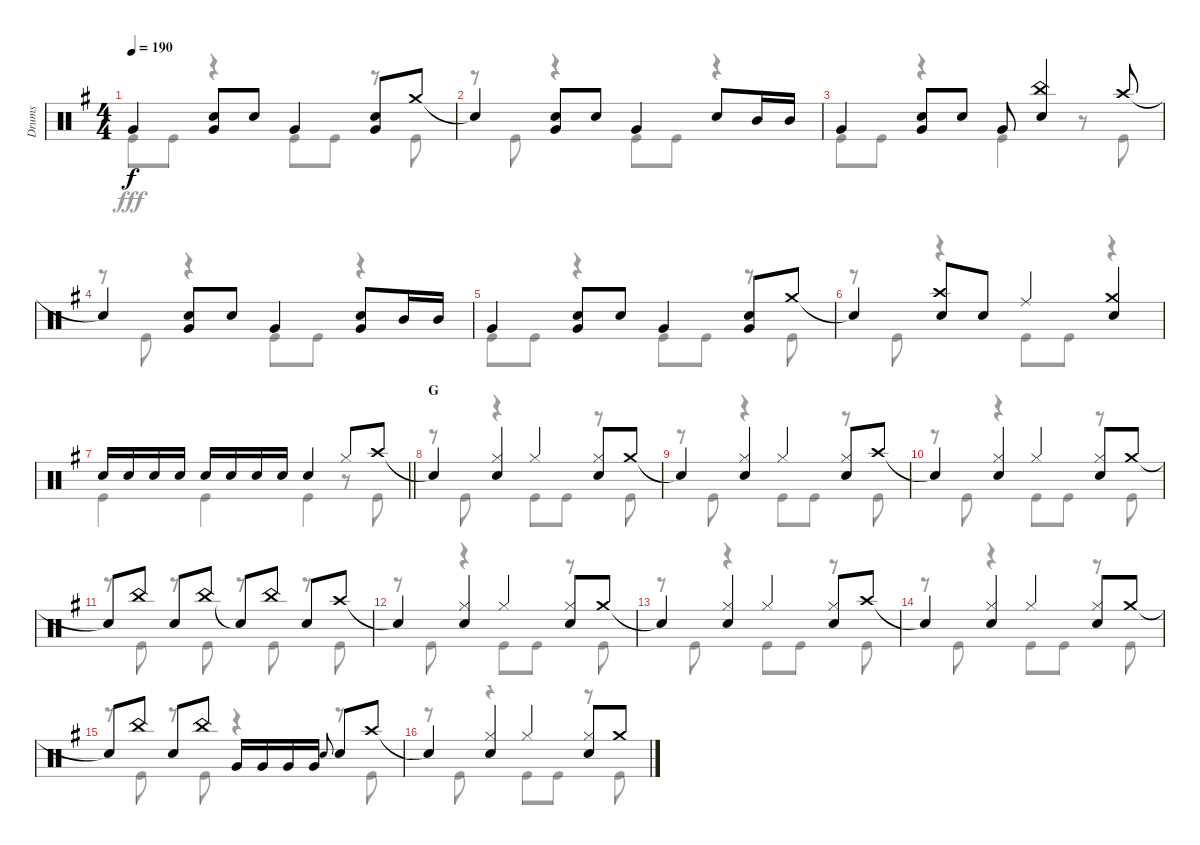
\track ("Drums" "Drums") {instrument percussion}
\staff {score}
\articulation defaults
\voice
\ts (4 4)
\tempo 190
\clef neutral
\ks g "Very Low Tom (hit)".4{dy f}
("Snare (hit) 2" "Very Low Tom (hit)").8 "Snare (hit) 2".8 "Very Low Tom (hit)".4 ("Snare (hit) 2" "Very Low Tom (hit)").8 "Crash medium (hit)".8 |
"Snare (hit)"{t}.4 ("Snare (hit) 2" "Very Low Tom (hit)").8 "Snare (hit) 2".8 "Very Low Tom (hit)".4 "Snare (hit) 2".8 "Mid Tom (hit)".16 "Mid Tom (hit)".16 |
"Very Low Tom (hit)".4 ("Snare (hit) 2" "Very Low Tom (hit)").8 "Snare (hit) 2".8 "Very Low Tom (hit)".8 ("China (hit)" "Snare (hit) 2").4 "Crash high (hit)".8 |
"Snare (hit)"{t}.4 ("Snare (hit) 2" "Very Low Tom (hit)").8 "Snare (hit) 2".8 "Very Low Tom (hit)".4 ("Snare (hit) 2" "Very Low Tom (hit)").8 "Mid Tom (hit)".16 "Mid Tom (hit)".16 |
"Very Low Tom (hit)".4 ("Snare (hit) 2" "Very Low Tom (hit)").8 "Snare (hit) 2".8 "Very Low Tom (hit)".4 ("Snare (hit) 2" "Very Low Tom (hit)").8 "Crash medium (hit)".8 |
"Snare (hit)"{t}.4 ("Crash high (hit)" "Snare (hit) 2").8 "Snare (hit) 2".8 "Ride (middle)".4 ("Crash medium (hit)" "Snare (hit) 2").4 |
\barLineRight lightlight "Snare (hit) 2".16 "Snare (hit) 2".16 "Snare (hit) 2".16 "Snare (hit) 2".16 "Snare (hit) 2".16 "Snare (hit) 2".16 "Snare (hit) 2".16 "Snare (hit) 2".16 "Snare (hit) 2".4 "Hi-Hat (closed)".8 "Crash high (hit)".8
|
\section ("" "G")
"Snare (hit)"{t}.4 ("Hi-Hat (closed)" "Snare (hit) 2").4 "Hi-Hat (closed)".4 ("Hi-Hat (closed)" "Snare (hit) 2").8 "Crash medium (hit)".8 |
"Snare (hit)"{t}.4 ("Hi-Hat (closed)" "Snare (hit) 2").4 "Hi-Hat (closed)".4 ("Hi-Hat (closed)" "Snare (hit) 2").8 "Crash high (hit)".8 |
"Snare (hit)"{t}.4 ("Hi-Hat (closed)" "Snare (hit) 2").4 "Hi-Hat (closed)".4 ("Hi-Hat (closed)" "Snare (hit) 2").8 "Crash medium (hit)".8 |
"Snare (hit)"{t}.8 "China (hit)".8 "Snare (hit) 2".8 "China (hit)".8 "Snare (hit)"{t}.8 "China (hit)".8 "Snare (hit) 2".8 "Crash high (hit)".8 |
"Snare (hit)"{t}.4 ("Hi-Hat (closed)" "Snare (hit) 2").4 "Hi-Hat (closed)".4 ("Hi-Hat (closed)" "Snare (hit) 2").8 "Crash medium (hit)".8 |
"Snare (hit)"{t}.4 ("Hi-Hat (closed)" "Snare (hit) 2").4 "Hi-Hat (closed)".4 ("Hi-Hat (closed)" "Snare (hit) 2").8 "Crash high (hit)".8 |
"Snare (hit)"{t}.4 ("Hi-Hat (closed)" "Snare (hit) 2").4 "Hi-Hat (closed)".4 ("Hi-Hat (closed)" "Snare (hit) 2").8 "Crash medium (hit)".8 |
"Snare (hit)"{t}.8 "China (hit)".8 "Snare (hit) 2".8 "China (hit)".8 "Very Low Tom (hit)".16 "Very Low Tom (hit)".16 "Very Low Tom (hit)".16 "Very Low Tom (hit)".16 "Snare (hit) 2".8{gr onbeat} "Snare (hit) 2".8 "Crash high (hit)".8 |
"Snare (hit)"{t}.4 ("Hi-Hat (closed)" "Snare (hit) 2").4 "Hi-Hat (closed)".4 ("Hi-Hat (closed)" "Snare (hit) 2").8 "Crash medium (hit)".8
\voice
\clef neutral
\ottava regular
\simile none
\ks g "Kick (hit)".8{dy fff} "Kick (hit)".8
r.4 "Kick (hit)".8 "Kick (hit)".8 r.8 "Kick (hit)".8 |
r.8 "Kick (hit)".8 r.4 "Kick (hit)".8 "Kick (hit)".8 r.4 |
"Kick (hit)".8 "Kick (hit)".8 r.4 "Kick (hit)".4 r.8 "Kick (hit)".8 |
r.8 "Kick (hit)".8 r.4 "Kick (hit)".8 "Kick (hit)".8 r.4 |
"Kick (hit)".8 "Kick (hit)".8 r.4 "Kick (hit)".8 "Kick (hit)".8 r.8 "Kick (hit)".8 |
r.8 "Kick (hit)".8 r.4 "Kick (hit)".8 "Kick (hit)".8 r.4 |
\barLineRight lightlight "Kick (hit)".4 "Kick (hit)".4 "Kick (hit)".4
r.8 "Kick (hit)".8 |
r.8 "Kick (hit)".8 r.4 "Kick (hit)".8 "Kick (hit)".8 r.8 "Kick (hit)".8 |
r.8 "Kick (hit)".8 r.4 "Kick (hit)".8 "Kick (hit)".8 r.8 "Kick (hit)".8 |
r.8 "Kick (hit)".8 r.4 "Kick (hit)".8 "Kick (hit)".8 r.8 "Kick (hit)".8 |
r.8 "Kick (hit)".8 r.8 "Kick (hit)".8 r.8 "Kick (hit)".8 r.8 "Kick (hit)".8 |
r.8 "Kick (hit)".8 r.4 "Kick (hit)".8 "Kick (hit)".8 r.8 "Kick (hit)".8 |
r.8 "Kick (hit)".8 r.4 "Kick (hit)".8 "Kick (hit)".8 r.8 "Kick (hit)".8 |
r.8 "Kick (hit)".8 r.4 "Kick (hit)".8 "Kick (hit)".8 r.8 "Kick (hit)".8 |
r.8 "Kick (hit)".8 r.8 "Kick (hit)".8 r.4 r.8 "Kick (hit)".8 |
r.8 "Kick (hit)".8 r.4 "Kick (hit)".8 "Kick (hit)".8 r.8 "Kick (hit)".8
